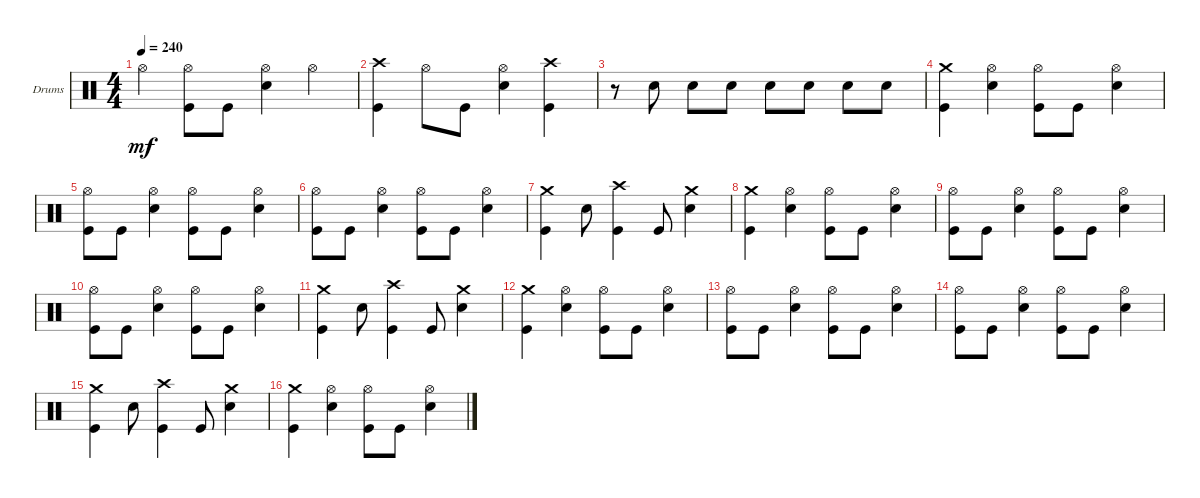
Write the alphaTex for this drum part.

\bracketExtendMode groupsimilarinstruments
\firstSystemTrackNameOrientation horizontal
\otherSystemsTrackNameOrientation horizontal
\track ("Drumkit" "Drums") {instrument percussion}
\staff {score}
\articulation defaults
\ts (4 4)
\tempo 240
\clef neutral
\ks c "Hi-Hat (open)".4{dy mf}
("Hi-Hat (open)" "Kick (hit)").8 "Kick (hit)".8 ("Hi-Hat (open)" "Snare (hit) 2").4 "Hi-Hat (open)".4 |
("Crash high (hit)" "Kick (hit)").4 "Hi-Hat (open)".8 "Kick (hit)".8 ("Hi-Hat (open)" "Snare (hit) 2").4 ("Crash high (hit)" "Kick (hit)").4 |
r.8 "Snare (hit) 2".8 "Snare (hit) 2".8 "Snare (hit) 2".8 "Snare (hit) 2".8 "Snare (hit) 2".8 "Snare (hit) 2".8 "Snare (hit) 2".8 |
("Crash medium (hit)" "Kick (hit)").4 ("Hi-Hat (open)" "Snare (hit) 2").4 ("Hi-Hat (open)" "Kick (hit)").8 "Kick (hit)".8 ("Hi-Hat (open)" "Snare (hit) 2").4 |
("Hi-Hat (open)" "Kick (hit)").8 "Kick (hit)".8 ("Hi-Hat (open)" "Snare (hit) 2").4 ("Hi-Hat (open)" "Kick (hit)").8 "Kick (hit)".8 ("Hi-Hat (open)" "Snare (hit) 2").4 |
("Hi-Hat (open)" "Kick (hit)").8 "Kick (hit)".8 ("Hi-Hat (open)" "Snare (hit) 2").4 ("Hi-Hat (open)" "Kick (hit)").8 "Kick (hit)".8 ("Hi-Hat (open)" "Snare (hit) 2").4 |
("Crash medium (hit)" "Kick (hit)").4 "Snare (hit) 2".8 ("Crash high (hit)" "Kick (hit)").4 "Kick (hit)".8 ("Crash medium (hit)" "Snare (hit) 2").4 |
("Crash medium (hit)" "Kick (hit)").4 ("Hi-Hat (open)" "Snare (hit) 2").4 ("Hi-Hat (open)" "Kick (hit)").8 "Kick (hit)".8 ("Hi-Hat (open)" "Snare (hit) 2").4 |
("Hi-Hat (open)" "Kick (hit)").8 "Kick (hit)".8 ("Hi-Hat (open)" "Snare (hit) 2").4 ("Hi-Hat (open)" "Kick (hit)").8 "Kick (hit)".8 ("Hi-Hat (open)" "Snare (hit) 2").4 |
("Hi-Hat (open)" "Kick (hit)").8 "Kick (hit)".8 ("Hi-Hat (open)" "Snare (hit) 2").4 ("Hi-Hat (open)" "Kick (hit)").8 "Kick (hit)".8 ("Hi-Hat (open)" "Snare (hit) 2").4 |
("Crash medium (hit)" "Kick (hit)").4 "Snare (hit) 2".8 ("Crash high (hit)" "Kick (hit)").4 "Kick (hit)".8 ("Crash medium (hit)" "Snare (hit) 2").4 |
("Crash medium (hit)" "Kick (hit)").4 ("Hi-Hat (open)" "Snare (hit) 2").4 ("Hi-Hat (open)" "Kick (hit)").8 "Kick (hit)".8 ("Hi-Hat (open)" "Snare (hit) 2").4 |
("Hi-Hat (open)" "Kick (hit)").8 "Kick (hit)".8 ("Hi-Hat (open)" "Snare (hit) 2").4 ("Hi-Hat (open)" "Kick (hit)").8 "Kick (hit)".8 ("Hi-Hat (open)" "Snare (hit) 2").4 |
("Hi-Hat (open)" "Kick (hit)").8 "Kick (hit)".8 ("Hi-Hat (open)" "Snare (hit) 2").4 ("Hi-Hat (open)" "Kick (hit)").8 "Kick (hit)".8 ("Hi-Hat (open)" "Snare (hit) 2").4 |
("Crash medium (hit)" "Kick (hit)").4 "Snare (hit) 2".8 ("Crash high (hit)" "Kick (hit)").4 "Kick (hit)".8 ("Crash medium (hit)" "Snare (hit) 2").4 |
("Crash medium (hit)" "Kick (hit)").4 ("Hi-Hat (open)" "Snare (hit) 2").4 ("Hi-Hat (open)" "Kick (hit)").8 "Kick (hit)".8 ("Hi-Hat (open)" "Snare (hit) 2").4
